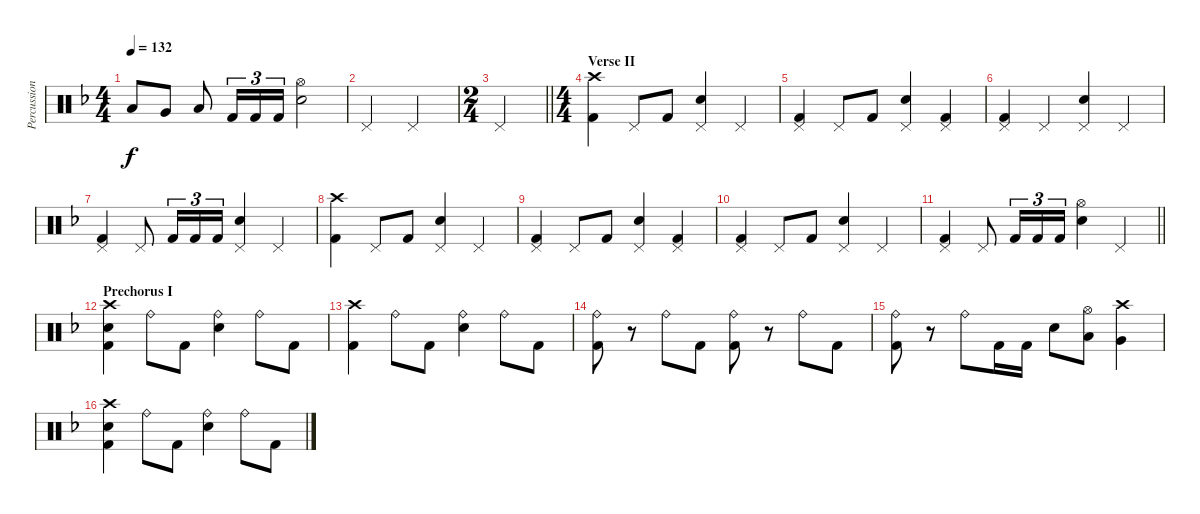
\track ("Percussion" "Percussion") {instrument percussion}
\staff {score}
\articulation defaults
\ts (4 4)
\tempo 132
\clef neutral
\ks dminor "Low Tom (hit)".8{dy f} "Very Low Tom (hit)".8 "Low Floor Tom (hit)".8 "Kick (hit) 2".16{tu (3 2)} "Kick (hit) 2".16{tu (3 2)} "Kick (hit) 2".16{tu (3 2)}
("Hi-Hat (open)" "Electric Snare (hit)").2 |
"Pedal Hi-Hat (hit)".2 "Pedal Hi-Hat (hit)".2 |
\ts (2 4)
\barLineRight lightlight "Pedal Hi-Hat (hit)".2
|
\ts (4 4)
\section ("" "Verse II")
("Crash high (hit)" "Kick (hit) 2").4 "Pedal Hi-Hat (hit)".8 "Kick (hit) 2".8 ("Pedal Hi-Hat (hit)" "Electric Snare (hit)").4 "Pedal Hi-Hat (hit)".4 |
("Pedal Hi-Hat (hit)" "Kick (hit) 2").4 "Pedal Hi-Hat (hit)".8 "Kick (hit) 2".8 ("Pedal Hi-Hat (hit)" "Electric Snare (hit)").4 ("Pedal Hi-Hat (hit)" "Kick (hit) 2").4 |
("Pedal Hi-Hat (hit)" "Kick (hit) 2").4 "Pedal Hi-Hat (hit)".4 ("Pedal Hi-Hat (hit)" "Electric Snare (hit)").4 "Pedal Hi-Hat (hit)".4 |
("Pedal Hi-Hat (hit)" "Kick (hit) 2").4 "Pedal Hi-Hat (hit)".8 "Kick (hit) 2".16{tu (3 2)} "Kick (hit) 2".16{tu (3 2)} "Kick (hit) 2".16{tu (3 2)} ("Pedal Hi-Hat (hit)" "Electric Snare (hit)").4 "Pedal Hi-Hat (hit)".4 |
("Crash high (hit)" "Kick (hit) 2").4 "Pedal Hi-Hat (hit)".8 "Kick (hit) 2".8 ("Pedal Hi-Hat (hit)" "Electric Snare (hit)").4 "Pedal Hi-Hat (hit)".4 |
("Pedal Hi-Hat (hit)" "Kick (hit) 2").4 "Pedal Hi-Hat (hit)".8 "Kick (hit) 2".8 ("Pedal Hi-Hat (hit)" "Electric Snare (hit)").4 ("Pedal Hi-Hat (hit)" "Kick (hit) 2").4 |
("Pedal Hi-Hat (hit)" "Kick (hit) 2").4 "Pedal Hi-Hat (hit)".8 "Kick (hit) 2".8 ("Pedal Hi-Hat (hit)" "Electric Snare (hit)").4 "Pedal Hi-Hat (hit)".4 |
\barLineRight lightlight
("Pedal Hi-Hat (hit)" "Kick (hit) 2").4 "Pedal Hi-Hat (hit)".8 "Kick (hit) 2".16{tu (3 2)} "Kick (hit) 2".16{tu (3 2)} "Kick (hit) 2".16{tu (3 2)} ("Hi-Hat (open)" "Electric Snare (hit)").4 "Pedal Hi-Hat (hit)".4 |
\section ("" "Prechorus I")
("Crash high (hit)" "Electric Snare (hit)" "Kick (hit) 2").4 "Ride (bell)".8 "Kick (hit) 2".8 ("Ride (bell)" "Electric Snare (hit)").4 "Ride (bell)".8 "Kick (hit) 2".8 |
("Crash high (hit)" "Kick (hit) 2").4 "Ride (bell)".8 "Kick (hit) 2".8 ("Ride (bell)" "Electric Snare (hit)").4 "Ride (bell)".8 "Kick (hit) 2".8 |
("Ride (bell)" "Kick (hit) 2").8 r.8 "Ride (bell)".8 "Kick (hit) 2".8 ("Ride (bell)" "Kick (hit) 2").8 r.8 "Ride (bell)".8 "Kick (hit) 2".8 |
("Ride (bell)" "Kick (hit) 2").8 r.8 "Ride (bell)".8 "Kick (hit) 2".16 "Kick (hit) 2".16 "Electric Snare (hit)".8 ("Hi-Hat (open)" "Low Tom (hit)").8 ("Crash high (hit)" "Very Low Tom (hit)").4 |
("Crash high (hit)" "Electric Snare (hit)" "Kick (hit) 2").4 "Ride (bell)".8 "Kick (hit) 2".8 ("Ride (bell)" "Electric Snare (hit)").4 "Ride (bell)".8 "Kick (hit) 2".8
